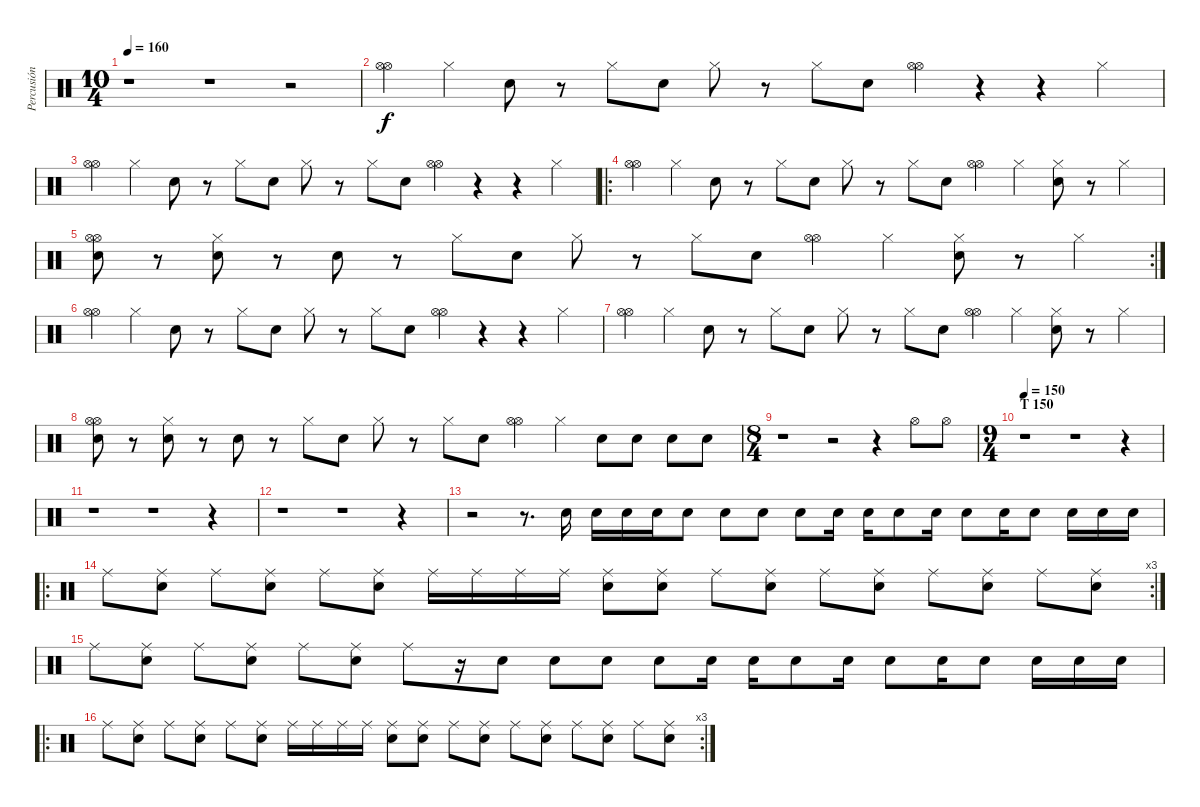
\track ("Percusión - Compa" "Percusión ") {instrument percussion}
\staff {score}
\articulation defaults
\ts (10 4)
\tempo 160
\clef neutral
\ks c
r.1{dy f} r.1 r.2 |
("Hi-Hat (open)" "Hi-Hat (open)").4 "Hi-Hat (closed)".4 "Electric Snare (hit)".8 r.8 "Hi-Hat (closed)".8 "Electric Snare (hit)".8 "Hi-Hat (closed)".8 r.8 "Hi-Hat (closed)".8 "Electric Snare (hit)".8 ("Hi-Hat (open)" "Hi-Hat (open)").4 r.4 r.4 "Hi-Hat (closed)".4 |
("Hi-Hat (open)" "Hi-Hat (open)").4 "Hi-Hat (closed)".4 "Electric Snare (hit)".8 r.8 "Hi-Hat (closed)".8 "Electric Snare (hit)".8 "Hi-Hat (closed)".8 r.8 "Hi-Hat (closed)".8 "Electric Snare (hit)".8 ("Hi-Hat (open)" "Hi-Hat (open)").4 r.4 r.4 "Hi-Hat (closed)".4 |
\ro
("Hi-Hat (open)" "Hi-Hat (open)").4 "Hi-Hat (closed)".4 "Electric Snare (hit)".8 r.8 "Hi-Hat (closed)".8 "Electric Snare (hit)".8 "Hi-Hat (closed)".8 r.8 "Hi-Hat (closed)".8 "Electric Snare (hit)".8 ("Hi-Hat (open)" "Hi-Hat (open)").4 "Hi-Hat (closed)".4 ("Hi-Hat (closed)" "Electric Snare (hit)").8 r.8 "Hi-Hat (closed)".4 |
\rc 2
("Hi-Hat (open)" "Hi-Hat (open)" "Electric Snare (hit)").8 r.8 ("Hi-Hat (closed)" "Electric Snare (hit)").8 r.8 "Electric Snare (hit)".8 r.8 "Hi-Hat (closed)".8 "Electric Snare (hit)".8 "Hi-Hat (closed)".8 r.8 "Hi-Hat (closed)".8 "Electric Snare (hit)".8 ("Hi-Hat (open)" "Hi-Hat (open)").4 "Hi-Hat (closed)".4 ("Hi-Hat (closed)" "Electric Snare (hit)").8 r.8 "Hi-Hat (closed)".4 |
("Hi-Hat (open)" "Hi-Hat (open)").4 "Hi-Hat (closed)".4 "Electric Snare (hit)".8 r.8 "Hi-Hat (closed)".8 "Electric Snare (hit)".8 "Hi-Hat (closed)".8 r.8 "Hi-Hat (closed)".8 "Electric Snare (hit)".8 ("Hi-Hat (open)" "Hi-Hat (open)").4 r.4 r.4 "Hi-Hat (closed)".4 |
("Hi-Hat (open)" "Hi-Hat (open)").4 "Hi-Hat (closed)".4 "Electric Snare (hit)".8 r.8 "Hi-Hat (closed)".8 "Electric Snare (hit)".8 "Hi-Hat (closed)".8 r.8 "Hi-Hat (closed)".8 "Electric Snare (hit)".8 ("Hi-Hat (open)" "Hi-Hat (open)").4 "Hi-Hat (closed)".4 ("Hi-Hat (closed)" "Electric Snare (hit)").8 r.8 "Hi-Hat (closed)".4 |
("Hi-Hat (open)" "Hi-Hat (open)" "Electric Snare (hit)").8 r.8 ("Hi-Hat (closed)" "Electric Snare (hit)").8 r.8 "Electric Snare (hit)".8 r.8 "Hi-Hat (closed)".8 "Electric Snare (hit)".8 "Hi-Hat (closed)".8 r.8 "Hi-Hat (closed)".8 "Electric Snare (hit)".8 ("Hi-Hat (open)" "Hi-Hat (open)").4 "Hi-Hat (closed)".4 "Electric Snare (hit)".8 "Electric Snare (hit)".8 "Electric Snare (hit)".8 "Electric Snare (hit)".8 |
\ts (8 4)
r.1 r.2 r.4 "Hi-Hat (open)".8 "Hi-Hat (open)".8 |
\ts (9 4)
\section ("" "T 150")
\tempo 150
r.1 r.1 r.4 |
r.1 r.1 r.4 |
r.1 r.1 r.4 |
r.2 r.8{d} "Electric Snare (hit)".16 "Electric Snare (hit)".16 "Electric Snare (hit)".16 "Electric Snare (hit)".16 "Electric Snare (hit)".8 "Electric Snare (hit)".8 "Electric Snare (hit)".8 "Electric Snare (hit)".8 "Electric Snare (hit)".16 "Electric Snare (hit)".16 "Electric Snare (hit)".8 "Electric Snare (hit)".16 "Electric Snare (hit)".8 "Electric Snare (hit)".16 "Electric Snare (hit)".8 "Electric Snare (hit)".16 "Electric Snare (hit)".16 "Electric Snare (hit)".16 |
\ro
\rc 3 "Ride (middle)".8
("Ride (middle)" "Electric Snare (hit)").8 "Ride (middle)".8 ("Ride (middle)" "Electric Snare (hit)").8 "Ride (middle)".8 ("Ride (middle)" "Electric Snare (hit)").8 "Ride (middle)".16 "Ride (middle)".16 "Ride (middle)".16 "Ride (middle)".16 ("Ride (middle)" "Electric Snare (hit)").8 ("Ride (middle)" "Electric Snare (hit)").8 "Ride (middle)".8 ("Ride (middle)" "Electric Snare (hit)").8 "Ride (middle)".8 ("Ride (middle)" "Electric Snare (hit)").8 "Ride (middle)".8 ("Ride (middle)" "Electric Snare (hit)").8 "Ride (middle)".8 ("Ride (middle)" "Electric Snare (hit)").8 |
"Ride (middle)".8 ("Ride (middle)" "Electric Snare (hit)").8 "Ride (middle)".8 ("Ride (middle)" "Electric Snare (hit)").8 "Ride (middle)".8 ("Ride (middle)" "Electric Snare (hit)").8 "Ride (middle)".8 r.16 "Electric Snare (hit)".8 "Electric Snare (hit)".8 "Electric Snare (hit)".8 "Electric Snare (hit)".8 "Electric Snare (hit)".16 "Electric Snare (hit)".16 "Electric Snare (hit)".8 "Electric Snare (hit)".16 "Electric Snare (hit)".8 "Electric Snare (hit)".16 "Electric Snare (hit)".8 "Electric Snare (hit)".16 "Electric Snare (hit)".16 "Electric Snare (hit)".16 |
\ro
\rc 3 "Ride (middle)".8
("Ride (middle)" "Electric Snare (hit)").8 "Ride (middle)".8 ("Ride (middle)" "Electric Snare (hit)").8 "Ride (middle)".8 ("Ride (middle)" "Electric Snare (hit)").8 "Ride (middle)".16 "Ride (middle)".16 "Ride (middle)".16 "Ride (middle)".16 ("Ride (middle)" "Electric Snare (hit)").8 ("Ride (middle)" "Electric Snare (hit)").8 "Ride (middle)".8 ("Ride (middle)" "Electric Snare (hit)").8 "Ride (middle)".8 ("Ride (middle)" "Electric Snare (hit)").8 "Ride (middle)".8 ("Ride (middle)" "Electric Snare (hit)").8 "Ride (middle)".8 ("Ride (middle)" "Electric Snare (hit)").8
